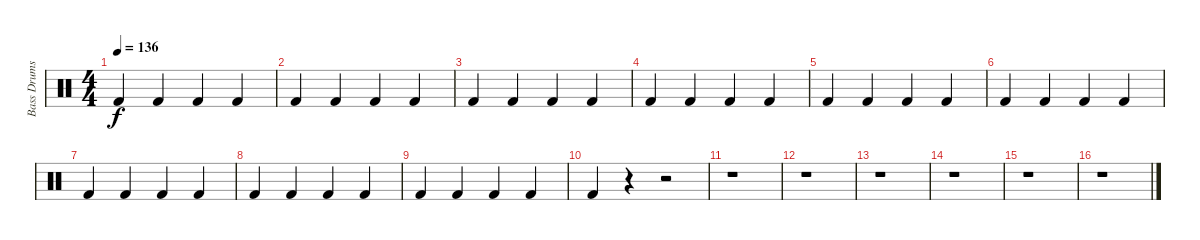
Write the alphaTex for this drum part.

\track ("Bass Drums" "Bass Drums") {instrument percussion}
\staff {score}
\articulation defaults
\ts (4 4)
\tempo 136
\clef neutral
\ks c "Kick (hit) 2".4{dy f} "Kick (hit) 2".4 "Kick (hit) 2".4 "Kick (hit) 2".4
|
"Kick (hit) 2".4 "Kick (hit) 2".4 "Kick (hit) 2".4 "Kick (hit) 2".4 |
"Kick (hit) 2".4 "Kick (hit) 2".4 "Kick (hit) 2".4 "Kick (hit) 2".4 |
"Kick (hit) 2".4 "Kick (hit) 2".4 "Kick (hit) 2".4 "Kick (hit) 2".4 |
"Kick (hit) 2".4 "Kick (hit) 2".4 "Kick (hit) 2".4 "Kick (hit) 2".4 |
"Kick (hit) 2".4 "Kick (hit) 2".4 "Kick (hit) 2".4 "Kick (hit) 2".4 |
"Kick (hit) 2".4 "Kick (hit) 2".4 "Kick (hit) 2".4 "Kick (hit) 2".4 |
"Kick (hit) 2".4 "Kick (hit) 2".4 "Kick (hit) 2".4 "Kick (hit) 2".4 |
"Kick (hit) 2".4 "Kick (hit) 2".4 "Kick (hit) 2".4 "Kick (hit) 2".4 |
"Kick (hit) 2".4 r.4 r.2 |
r.1 |
r.1 |
r.1 |
r.1 |
r.1 |
r.1
